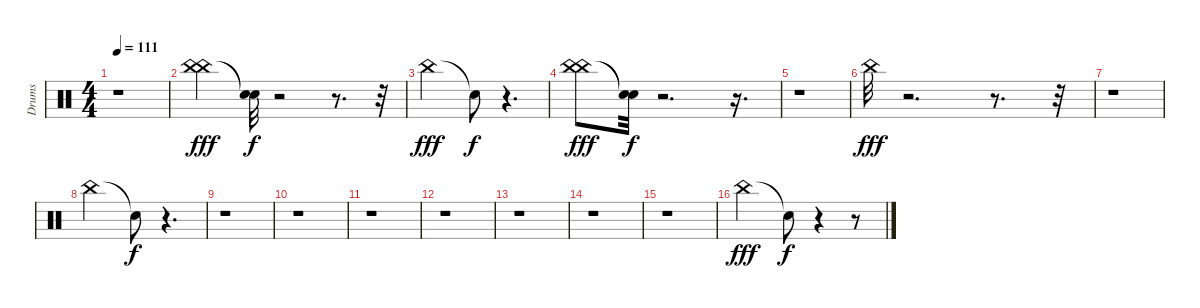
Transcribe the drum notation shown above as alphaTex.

\track ("Drums" "Drums") {instrument percussion}
\staff {score}
\articulation defaults
\ts (4 4)
\tempo 111
\clef neutral
\ks c
r.1{dy f} |
("China (hit)" "China (hit)").4{dy fff} ("Snare (hit)"{t} "Snare (hit)"{t}).32{dy f} r.2 r.8{d} r.32 |
"China (hit)".2{dy fff} "Snare (hit)"{t}.8{dy f} r.4{d} |
("China (hit)" "China (hit)").8{dy fff} ("Snare (hit)"{t} "Snare (hit)"{t}).32{dy f} r.2{d} r.16{d} |
r.1 |
"China (hit)".32{dy fff} r.2{d} r.8{d} r.32 |
r.1 |
"China (hit)".2 "Snare (hit)"{t}.8{dy f} r.4{d} |
r.1 |
r.1 |
r.1 |
r.1 |
r.1 |
r.1 |
r.1 |
"China (hit)".2{dy fff} "Snare (hit)"{t}.8{dy f} r.4 r.8
